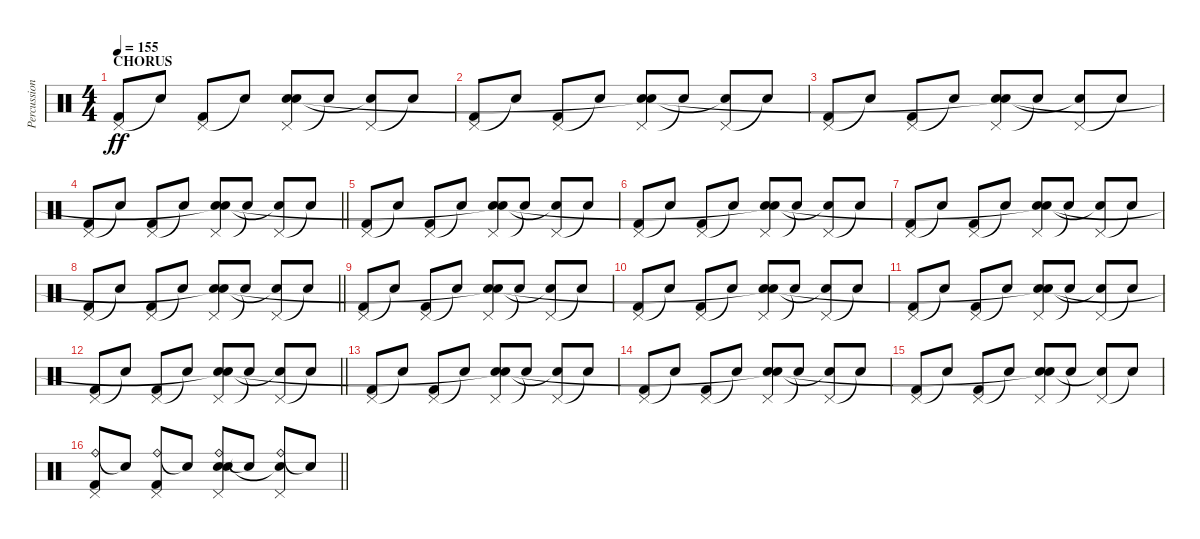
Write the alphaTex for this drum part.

\track ("Percussion" "Percussion") {instrument percussion}
\staff {score}
\articulation defaults
\ts (4 4)
\section ("" "CHORUS")
\tempo 155
\clef neutral
\ks c
("Pedal Hi-Hat (hit)" "Kick (hit) 2").8{dy ff} "Snare (hit)"{t}.8 ("Pedal Hi-Hat (hit)" "Kick (hit) 2").8 "Snare (hit)"{t}.8 ("Pedal Hi-Hat (hit)" "Snare (hit) 2" "Snare (hit)"{t}).8 "Snare (hit)"{t}.8 ("Pedal Hi-Hat (hit)" "Snare (hit)"{t}).8 "Snare (hit)"{t}.8 |
("Pedal Hi-Hat (hit)" "Kick (hit) 2").8 "Snare (hit)"{t}.8 ("Pedal Hi-Hat (hit)" "Kick (hit) 2").8 "Snare (hit)"{t}.8 ("Pedal Hi-Hat (hit)" "Snare (hit) 2" "Snare (hit)"{t}).8 "Snare (hit)"{t}.8 ("Pedal Hi-Hat (hit)" "Snare (hit)"{t}).8 "Snare (hit)"{t}.8 |
("Pedal Hi-Hat (hit)" "Kick (hit) 2").8 "Snare (hit)"{t}.8 ("Pedal Hi-Hat (hit)" "Kick (hit) 2").8 "Snare (hit)"{t}.8 ("Pedal Hi-Hat (hit)" "Snare (hit) 2" "Snare (hit)"{t}).8 "Snare (hit)"{t}.8 ("Pedal Hi-Hat (hit)" "Snare (hit)"{t}).8 "Snare (hit)"{t}.8 |
\barLineRight lightlight
("Pedal Hi-Hat (hit)" "Kick (hit) 2").8 "Snare (hit)"{t}.8 ("Pedal Hi-Hat (hit)" "Kick (hit) 2").8 "Snare (hit)"{t}.8 ("Pedal Hi-Hat (hit)" "Snare (hit) 2" "Snare (hit)"{t}).8 "Snare (hit)"{t}.8 ("Pedal Hi-Hat (hit)" "Snare (hit)"{t}).8 "Snare (hit)"{t}.8 |
("Pedal Hi-Hat (hit)" "Kick (hit) 2").8 "Snare (hit)"{t}.8 ("Pedal Hi-Hat (hit)" "Kick (hit) 2").8 "Snare (hit)"{t}.8 ("Pedal Hi-Hat (hit)" "Snare (hit) 2" "Snare (hit)"{t}).8 "Snare (hit)"{t}.8 ("Pedal Hi-Hat (hit)" "Snare (hit)"{t}).8 "Snare (hit)"{t}.8 |
("Pedal Hi-Hat (hit)" "Kick (hit) 2").8 "Snare (hit)"{t}.8 ("Pedal Hi-Hat (hit)" "Kick (hit) 2").8 "Snare (hit)"{t}.8 ("Pedal Hi-Hat (hit)" "Snare (hit) 2" "Snare (hit)"{t}).8 "Snare (hit)"{t}.8 ("Pedal Hi-Hat (hit)" "Snare (hit)"{t}).8 "Snare (hit)"{t}.8 |
("Pedal Hi-Hat (hit)" "Kick (hit) 2").8 "Snare (hit)"{t}.8 ("Pedal Hi-Hat (hit)" "Kick (hit) 2").8 "Snare (hit)"{t}.8 ("Pedal Hi-Hat (hit)" "Snare (hit) 2" "Snare (hit)"{t}).8 "Snare (hit)"{t}.8 ("Pedal Hi-Hat (hit)" "Snare (hit)"{t}).8 "Snare (hit)"{t}.8 |
\barLineRight lightlight
("Pedal Hi-Hat (hit)" "Kick (hit) 2").8 "Snare (hit)"{t}.8 ("Pedal Hi-Hat (hit)" "Kick (hit) 2").8 "Snare (hit)"{t}.8 ("Pedal Hi-Hat (hit)" "Snare (hit) 2" "Snare (hit)"{t}).8 "Snare (hit)"{t}.8 ("Pedal Hi-Hat (hit)" "Snare (hit)"{t}).8 "Snare (hit)"{t}.8 |
("Pedal Hi-Hat (hit)" "Kick (hit) 2").8 "Snare (hit)"{t}.8 ("Pedal Hi-Hat (hit)" "Kick (hit) 2").8 "Snare (hit)"{t}.8 ("Pedal Hi-Hat (hit)" "Snare (hit) 2" "Snare (hit)"{t}).8 "Snare (hit)"{t}.8 ("Pedal Hi-Hat (hit)" "Snare (hit)"{t}).8 "Snare (hit)"{t}.8 |
("Pedal Hi-Hat (hit)" "Kick (hit) 2").8 "Snare (hit)"{t}.8 ("Pedal Hi-Hat (hit)" "Kick (hit) 2").8 "Snare (hit)"{t}.8 ("Pedal Hi-Hat (hit)" "Snare (hit) 2" "Snare (hit)"{t}).8 "Snare (hit)"{t}.8 ("Pedal Hi-Hat (hit)" "Snare (hit)"{t}).8 "Snare (hit)"{t}.8 |
("Pedal Hi-Hat (hit)" "Kick (hit) 2").8 "Snare (hit)"{t}.8 ("Pedal Hi-Hat (hit)" "Kick (hit) 2").8 "Snare (hit)"{t}.8 ("Pedal Hi-Hat (hit)" "Snare (hit) 2" "Snare (hit)"{t}).8 "Snare (hit)"{t}.8 ("Pedal Hi-Hat (hit)" "Snare (hit)"{t}).8 "Snare (hit)"{t}.8 |
\barLineRight lightlight
("Pedal Hi-Hat (hit)" "Kick (hit) 2").8 "Snare (hit)"{t}.8 ("Pedal Hi-Hat (hit)" "Kick (hit) 2").8 "Snare (hit)"{t}.8 ("Pedal Hi-Hat (hit)" "Snare (hit) 2" "Snare (hit)"{t}).8 "Snare (hit)"{t}.8 ("Pedal Hi-Hat (hit)" "Snare (hit)"{t}).8 "Snare (hit)"{t}.8 |
("Pedal Hi-Hat (hit)" "Kick (hit) 2").8 "Snare (hit)"{t}.8 ("Pedal Hi-Hat (hit)" "Kick (hit) 2").8 "Snare (hit)"{t}.8 ("Pedal Hi-Hat (hit)" "Snare (hit) 2" "Snare (hit)"{t}).8 "Snare (hit)"{t}.8 ("Pedal Hi-Hat (hit)" "Snare (hit)"{t}).8 "Snare (hit)"{t}.8 |
("Pedal Hi-Hat (hit)" "Kick (hit) 2").8 "Snare (hit)"{t}.8 ("Pedal Hi-Hat (hit)" "Kick (hit) 2").8 "Snare (hit)"{t}.8 ("Pedal Hi-Hat (hit)" "Snare (hit) 2" "Snare (hit)"{t}).8 "Snare (hit)"{t}.8 ("Pedal Hi-Hat (hit)" "Snare (hit)"{t}).8 "Snare (hit)"{t}.8 |
("Pedal Hi-Hat (hit)" "Kick (hit) 2").8 "Snare (hit)"{t}.8 ("Pedal Hi-Hat (hit)" "Kick (hit) 2").8 "Snare (hit)"{t}.8 ("Pedal Hi-Hat (hit)" "Snare (hit) 2" "Snare (hit)"{t}).8 "Snare (hit)"{t}.8 ("Pedal Hi-Hat (hit)" "Snare (hit)"{t}).8 "Snare (hit)"{t}.8 |
\barLineRight lightlight
("Ride (bell)" "Pedal Hi-Hat (hit)" "Kick (hit) 2").8 "Snare (hit)"{t}.8 ("Ride (bell)" "Pedal Hi-Hat (hit)" "Kick (hit) 2").8 "Snare (hit)"{t}.8 ("Ride (bell)" "Pedal Hi-Hat (hit)" "Snare (hit) 2" "Snare (hit)").8 "Snare (hit)"{t}.8 ("Ride (bell)" "Pedal Hi-Hat (hit)" "Snare (hit)"{t}).8 "Snare (hit)"{t}.8
